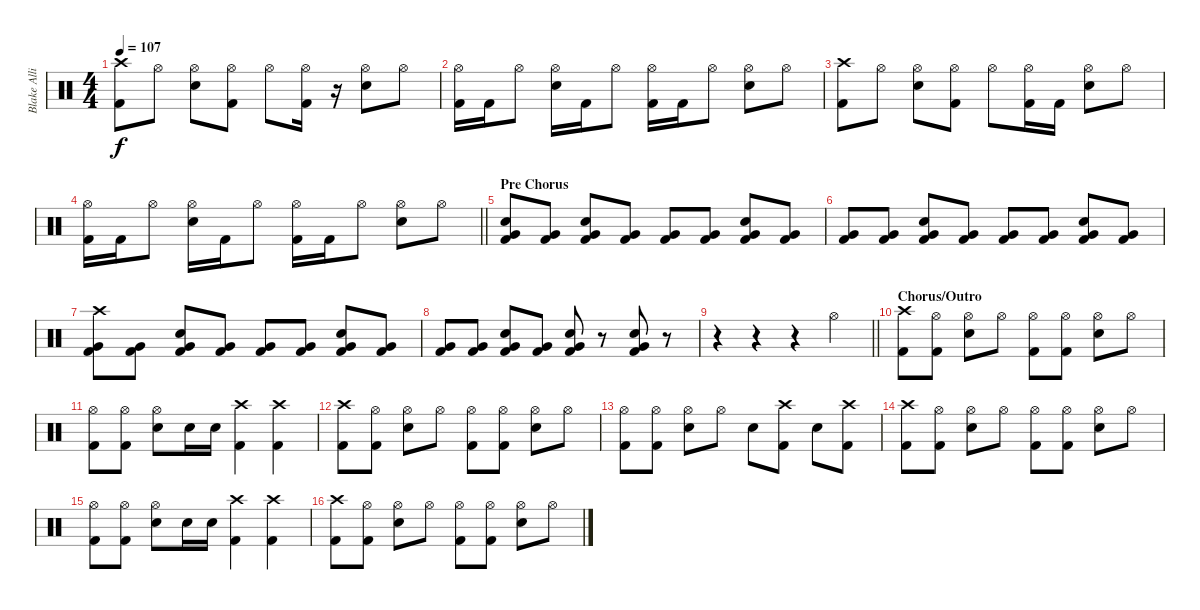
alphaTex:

\track ("Blake Allison" "Blake Alli") {instrument percussion}
\staff {score}
\articulation defaults
\ts (4 4)
\tempo 107
\clef neutral
\ks c
("Crash high (hit)" "Kick (hit) 2").8{dy f} "Hi-Hat (open)".8 ("Hi-Hat (open)" "Electric Snare (hit)").8 ("Hi-Hat (open)" "Kick (hit) 2").8 "Hi-Hat (open)".8 ("Hi-Hat (open)" "Kick (hit) 2").16 r.16 ("Hi-Hat (open)" "Electric Snare (hit)").8 "Hi-Hat (open)".8 |
("Hi-Hat (open)" "Kick (hit) 2").16 "Kick (hit) 2".16 "Hi-Hat (open)".8 ("Hi-Hat (open)" "Electric Snare (hit)").16 "Kick (hit) 2".16 "Hi-Hat (open)".8 ("Hi-Hat (open)" "Kick (hit) 2").16 "Kick (hit) 2".16 "Hi-Hat (open)".8 ("Hi-Hat (open)" "Electric Snare (hit)").8 "Hi-Hat (open)".8 |
("Crash high (hit)" "Kick (hit) 2").8 "Hi-Hat (open)".8 ("Hi-Hat (open)" "Electric Snare (hit)").8 ("Hi-Hat (open)" "Kick (hit) 2").8 "Hi-Hat (open)".8 ("Hi-Hat (open)" "Kick (hit) 2").16 "Kick (hit) 2".16 ("Hi-Hat (open)" "Electric Snare (hit)").8 "Hi-Hat (open)".8 |
\barLineRight lightlight
("Hi-Hat (open)" "Kick (hit) 2").16 "Kick (hit) 2".16 "Hi-Hat (open)".8 ("Hi-Hat (open)" "Electric Snare (hit)").16 "Kick (hit) 2".16 "Hi-Hat (open)".8 ("Hi-Hat (open)" "Kick (hit) 2").16 "Kick (hit) 2".16 "Hi-Hat (open)".8 ("Hi-Hat (open)" "Electric Snare (hit)").8 "Hi-Hat (open)".8 |
\section ("" "Pre Chorus")
("Electric Snare (hit)" "Very Low Tom (hit)" "Kick (hit) 2").8 ("Very Low Tom (hit)" "Kick (hit) 2").8 ("Electric Snare (hit)" "Very Low Tom (hit)" "Kick (hit) 2").8 ("Very Low Tom (hit)" "Kick (hit) 2").8 ("Very Low Tom (hit)" "Kick (hit) 2").8 ("Very Low Tom (hit)" "Kick (hit) 2").8 ("Electric Snare (hit)" "Very Low Tom (hit)" "Kick (hit) 2").8 ("Very Low Tom (hit)" "Kick (hit) 2").8 |
("Very Low Tom (hit)" "Kick (hit) 2").8 ("Very Low Tom (hit)" "Kick (hit) 2").8 ("Electric Snare (hit)" "Very Low Tom (hit)" "Kick (hit) 2").8 ("Very Low Tom (hit)" "Kick (hit) 2").8 ("Very Low Tom (hit)" "Kick (hit) 2").8 ("Very Low Tom (hit)" "Kick (hit) 2").8 ("Electric Snare (hit)" "Very Low Tom (hit)" "Kick (hit) 2").8 ("Very Low Tom (hit)" "Kick (hit) 2").8 |
("Crash high (hit)" "Very Low Tom (hit)" "Kick (hit) 2").8 ("Very Low Tom (hit)" "Kick (hit) 2").8 ("Electric Snare (hit)" "Very Low Tom (hit)" "Kick (hit) 2").8 ("Very Low Tom (hit)" "Kick (hit) 2").8 ("Very Low Tom (hit)" "Kick (hit) 2").8 ("Very Low Tom (hit)" "Kick (hit) 2").8 ("Electric Snare (hit)" "Very Low Tom (hit)" "Kick (hit) 2").8 ("Very Low Tom (hit)" "Kick (hit) 2").8 |
("Very Low Tom (hit)" "Kick (hit) 2").8 ("Very Low Tom (hit)" "Kick (hit) 2").8 ("Electric Snare (hit)" "Very Low Tom (hit)" "Kick (hit) 2").8 ("Very Low Tom (hit)" "Kick (hit) 2").8 ("Electric Snare (hit)" "Very Low Tom (hit)" "Kick (hit) 2").8 r.8 ("Electric Snare (hit)" "Very Low Tom (hit)" "Kick (hit) 2").8 r.8 |
\barLineRight lightlight
r.4 r.4 r.4 "Hi-Hat (open)".4 |
\section ("" "Chorus/Outro")
("Crash high (hit)" "Kick (hit) 2").8 ("Hi-Hat (open)" "Kick (hit) 2").8 ("Hi-Hat (open)" "Electric Snare (hit)").8 "Hi-Hat (open)".8 ("Hi-Hat (open)" "Kick (hit) 2").8 ("Hi-Hat (open)" "Kick (hit) 2").8 ("Hi-Hat (open)" "Electric Snare (hit)").8 "Hi-Hat (open)".8 |
("Hi-Hat (open)" "Kick (hit) 2").8 ("Hi-Hat (open)" "Kick (hit) 2").8 ("Hi-Hat (open)" "Electric Snare (hit)").8 "Electric Snare (hit)".16 "Electric Snare (hit)".16 ("Crash high (hit)" "Kick (hit) 2").4 ("Crash high (hit)" "Kick (hit) 2").4 |
("Crash high (hit)" "Kick (hit) 2").8 ("Hi-Hat (open)" "Kick (hit) 2").8 ("Hi-Hat (open)" "Electric Snare (hit)").8 "Hi-Hat (open)".8 ("Hi-Hat (open)" "Kick (hit) 2").8 ("Hi-Hat (open)" "Kick (hit) 2").8 ("Hi-Hat (open)" "Electric Snare (hit)").8 "Hi-Hat (open)".8 |
("Hi-Hat (open)" "Kick (hit) 2").8 ("Hi-Hat (open)" "Kick (hit) 2").8 ("Hi-Hat (open)" "Electric Snare (hit)").8 "Hi-Hat (open)".8 "Electric Snare (hit)".8 ("Crash high (hit)" "Kick (hit) 2").8 "Electric Snare (hit)".8 ("Crash high (hit)" "Kick (hit) 2").8 |
("Crash high (hit)" "Kick (hit) 2").8 ("Hi-Hat (open)" "Kick (hit) 2").8 ("Hi-Hat (open)" "Electric Snare (hit)").8 "Hi-Hat (open)".8 ("Hi-Hat (open)" "Kick (hit) 2").8 ("Hi-Hat (open)" "Kick (hit) 2").8 ("Hi-Hat (open)" "Electric Snare (hit)").8 "Hi-Hat (open)".8 |
("Hi-Hat (open)" "Kick (hit) 2").8 ("Hi-Hat (open)" "Kick (hit) 2").8 ("Hi-Hat (open)" "Electric Snare (hit)").8 "Electric Snare (hit)".16 "Electric Snare (hit)".16 ("Crash high (hit)" "Kick (hit) 2").4 ("Crash high (hit)" "Kick (hit) 2").4 |
("Crash high (hit)" "Kick (hit) 2").8 ("Hi-Hat (open)" "Kick (hit) 2").8 ("Hi-Hat (open)" "Electric Snare (hit)").8 "Hi-Hat (open)".8 ("Hi-Hat (open)" "Kick (hit) 2").8 ("Hi-Hat (open)" "Kick (hit) 2").8 ("Hi-Hat (open)" "Electric Snare (hit)").8 "Hi-Hat (open)".8
